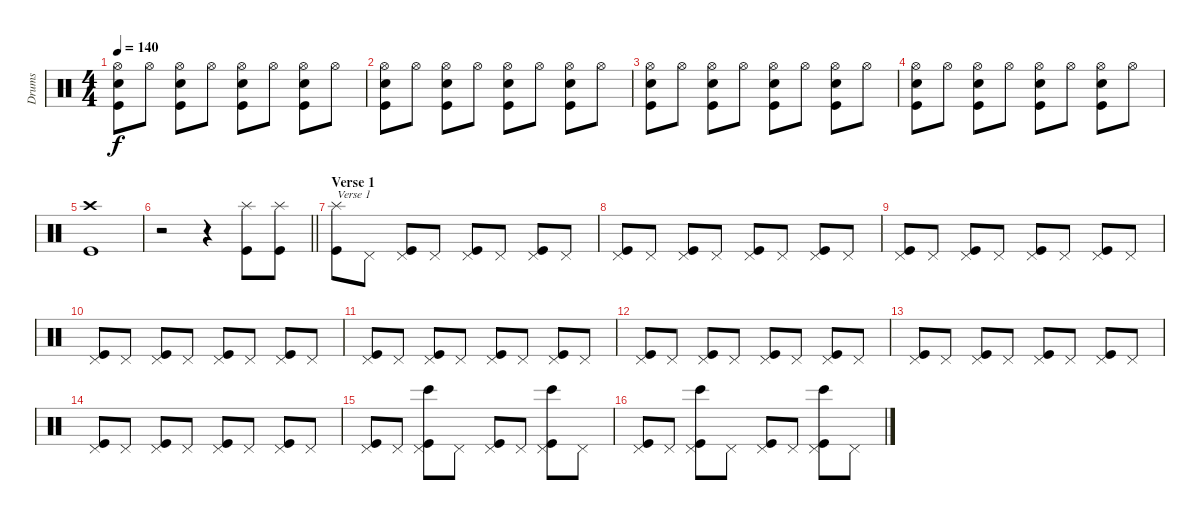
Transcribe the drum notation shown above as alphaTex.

\track ("Drums" "Drums") {instrument percussion}
\staff {score}
\articulation defaults
\ts (4 4)
\tempo 140
\clef neutral
\ks c
("Hi-Hat (open)" "Snare (hit) 2" "Kick (hit)").8{dy f} "Hi-Hat (open)".8 ("Hi-Hat (open)" "Snare (hit) 2" "Kick (hit)").8 "Hi-Hat (open)".8 ("Hi-Hat (open)" "Snare (hit) 2" "Kick (hit)").8 "Hi-Hat (open)".8 ("Hi-Hat (open)" "Snare (hit) 2" "Kick (hit)").8 "Hi-Hat (open)".8 |
("Hi-Hat (open)" "Snare (hit) 2" "Kick (hit)").8 "Hi-Hat (open)".8 ("Hi-Hat (open)" "Snare (hit) 2" "Kick (hit)").8 "Hi-Hat (open)".8 ("Hi-Hat (open)" "Snare (hit) 2" "Kick (hit)").8 "Hi-Hat (open)".8 ("Hi-Hat (open)" "Snare (hit) 2" "Kick (hit)").8 "Hi-Hat (open)".8 |
("Hi-Hat (open)" "Snare (hit) 2" "Kick (hit)").8 "Hi-Hat (open)".8 ("Hi-Hat (open)" "Snare (hit) 2" "Kick (hit)").8 "Hi-Hat (open)".8 ("Hi-Hat (open)" "Snare (hit) 2" "Kick (hit)").8 "Hi-Hat (open)".8 ("Hi-Hat (open)" "Snare (hit) 2" "Kick (hit)").8 "Hi-Hat (open)".8 |
("Hi-Hat (open)" "Snare (hit) 2" "Kick (hit)").8 "Hi-Hat (open)".8 ("Hi-Hat (open)" "Snare (hit) 2" "Kick (hit)").8 "Hi-Hat (open)".8 ("Hi-Hat (open)" "Snare (hit) 2" "Kick (hit)").8 "Hi-Hat (open)".8 ("Hi-Hat (open)" "Snare (hit) 2" "Kick (hit)").8 "Hi-Hat (open)".8 |
("Crash high (hit)" "Kick (hit)").1 |
\barLineRight lightlight
r.2 r.4 ("Splash (hit)" "Kick (hit)").8 ("Splash (hit)" "Kick (hit)").8 |
\section ("" "Verse 1")
("Splash (hit)" "Kick (hit)").8{txt "Verse 1"} "Pedal Hi-Hat (hit)".8 ("Pedal Hi-Hat (hit)" "Kick (hit)").8 "Pedal Hi-Hat (hit)".8 ("Pedal Hi-Hat (hit)" "Kick (hit)").8 "Pedal Hi-Hat (hit)".8 ("Pedal Hi-Hat (hit)" "Kick (hit)").8 "Pedal Hi-Hat (hit)".8 |
("Pedal Hi-Hat (hit)" "Kick (hit)").8 "Pedal Hi-Hat (hit)".8 ("Pedal Hi-Hat (hit)" "Kick (hit)").8 "Pedal Hi-Hat (hit)".8 ("Pedal Hi-Hat (hit)" "Kick (hit)").8 "Pedal Hi-Hat (hit)".8 ("Pedal Hi-Hat (hit)" "Kick (hit)").8 "Pedal Hi-Hat (hit)".8 |
("Pedal Hi-Hat (hit)" "Kick (hit)").8 "Pedal Hi-Hat (hit)".8 ("Pedal Hi-Hat (hit)" "Kick (hit)").8 "Pedal Hi-Hat (hit)".8 ("Pedal Hi-Hat (hit)" "Kick (hit)").8 "Pedal Hi-Hat (hit)".8 ("Pedal Hi-Hat (hit)" "Kick (hit)").8 "Pedal Hi-Hat (hit)".8 |
("Pedal Hi-Hat (hit)" "Kick (hit)").8 "Pedal Hi-Hat (hit)".8 ("Pedal Hi-Hat (hit)" "Kick (hit)").8 "Pedal Hi-Hat (hit)".8 ("Pedal Hi-Hat (hit)" "Kick (hit)").8 "Pedal Hi-Hat (hit)".8 ("Pedal Hi-Hat (hit)" "Kick (hit)").8 "Pedal Hi-Hat (hit)".8 |
("Pedal Hi-Hat (hit)" "Kick (hit)").8 "Pedal Hi-Hat (hit)".8 ("Pedal Hi-Hat (hit)" "Kick (hit)").8 "Pedal Hi-Hat (hit)".8 ("Pedal Hi-Hat (hit)" "Kick (hit)").8 "Pedal Hi-Hat (hit)".8 ("Pedal Hi-Hat (hit)" "Kick (hit)").8 "Pedal Hi-Hat (hit)".8 |
("Pedal Hi-Hat (hit)" "Kick (hit)").8 "Pedal Hi-Hat (hit)".8 ("Pedal Hi-Hat (hit)" "Kick (hit)").8 "Pedal Hi-Hat (hit)".8 ("Pedal Hi-Hat (hit)" "Kick (hit)").8 "Pedal Hi-Hat (hit)".8 ("Pedal Hi-Hat (hit)" "Kick (hit)").8 "Pedal Hi-Hat (hit)".8 |
("Pedal Hi-Hat (hit)" "Kick (hit)").8 "Pedal Hi-Hat (hit)".8 ("Pedal Hi-Hat (hit)" "Kick (hit)").8 "Pedal Hi-Hat (hit)".8 ("Pedal Hi-Hat (hit)" "Kick (hit)").8 "Pedal Hi-Hat (hit)".8 ("Pedal Hi-Hat (hit)" "Kick (hit)").8 "Pedal Hi-Hat (hit)".8 |
("Pedal Hi-Hat (hit)" "Kick (hit)").8 "Pedal Hi-Hat (hit)".8 ("Pedal Hi-Hat (hit)" "Kick (hit)").8 "Pedal Hi-Hat (hit)".8 ("Pedal Hi-Hat (hit)" "Kick (hit)").8 "Pedal Hi-Hat (hit)".8 ("Pedal Hi-Hat (hit)" "Kick (hit)").8 "Pedal Hi-Hat (hit)".8 |
("Pedal Hi-Hat (hit)" "Kick (hit)").8 "Pedal Hi-Hat (hit)".8 ("Pedal Hi-Hat (hit)" "Bongo High (hit)" "Kick (hit)").8 "Pedal Hi-Hat (hit)".8 ("Pedal Hi-Hat (hit)" "Kick (hit)").8 "Pedal Hi-Hat (hit)".8 ("Pedal Hi-Hat (hit)" "Bongo High (hit)" "Kick (hit)").8 "Pedal Hi-Hat (hit)".8 |
("Pedal Hi-Hat (hit)" "Kick (hit)").8 "Pedal Hi-Hat (hit)".8 ("Pedal Hi-Hat (hit)" "Bongo High (hit)" "Kick (hit)").8 "Pedal Hi-Hat (hit)".8 ("Pedal Hi-Hat (hit)" "Kick (hit)").8 "Pedal Hi-Hat (hit)".8 ("Pedal Hi-Hat (hit)" "Bongo High (hit)" "Kick (hit)").8 "Pedal Hi-Hat (hit)".8
